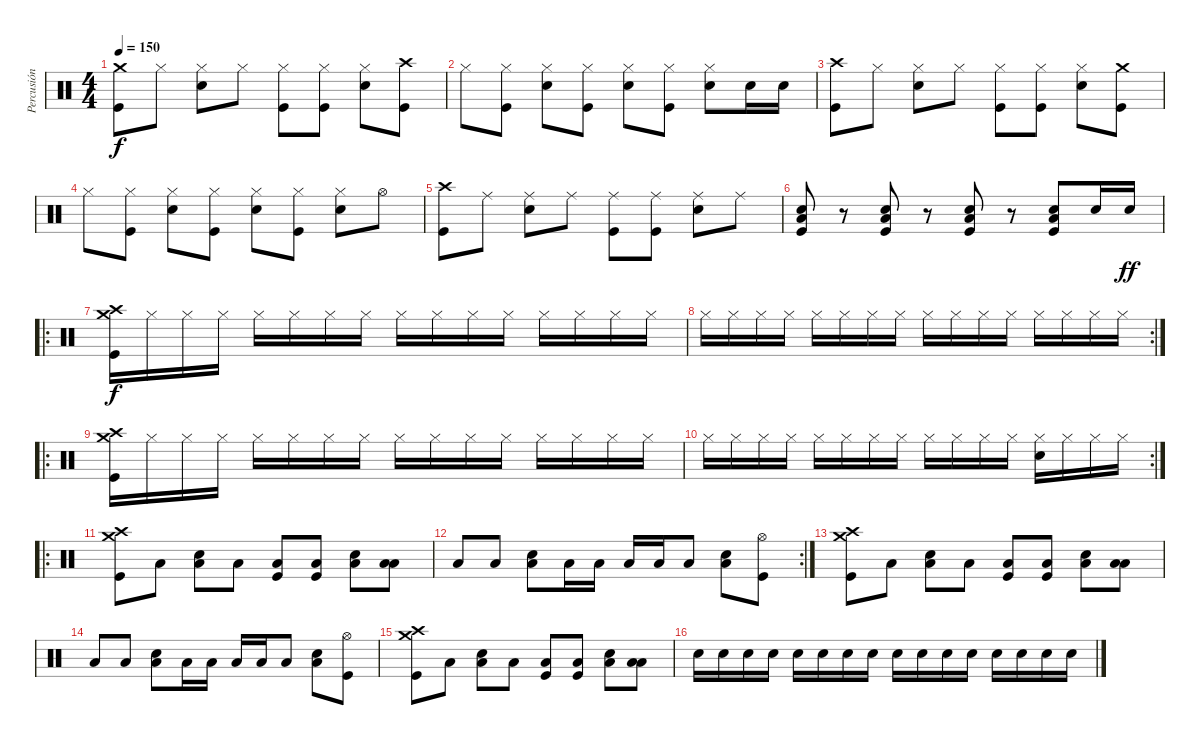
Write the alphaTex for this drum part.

\track ("Percusión" "Percusión") {instrument percussion}
\staff {score}
\articulation defaults
\ts (4 4)
\tempo 150
\clef neutral
\ks c
("Crash medium (hit)" "Kick (hit)").8{dy f} "Hi-Hat (closed)".8 ("Hi-Hat (closed)" "Snare (hit) 2").8 "Hi-Hat (closed)".8 ("Hi-Hat (closed)" "Kick (hit)").8 ("Hi-Hat (closed)" "Kick (hit)").8 ("Hi-Hat (closed)" "Snare (hit) 2").8 ("Crash high (hit)" "Kick (hit)").8 |
"Hi-Hat (closed)".8 ("Hi-Hat (closed)" "Kick (hit)").8 ("Hi-Hat (closed)" "Snare (hit) 2").8 ("Hi-Hat (closed)" "Kick (hit)").8 ("Hi-Hat (closed)" "Snare (hit) 2").8 ("Hi-Hat (closed)" "Kick (hit)").8 ("Hi-Hat (closed)" "Snare (hit) 2").8 "Snare (hit) 2".16 "Snare (hit) 2".16 |
("Crash high (hit)" "Kick (hit)").8 "Hi-Hat (closed)".8 ("Hi-Hat (closed)" "Snare (hit) 2").8 "Hi-Hat (closed)".8 ("Hi-Hat (closed)" "Kick (hit)").8 ("Hi-Hat (closed)" "Kick (hit)").8 ("Hi-Hat (closed)" "Snare (hit) 2").8 ("Crash medium (hit)" "Kick (hit)").8 |
"Hi-Hat (closed)".8 ("Hi-Hat (closed)" "Kick (hit)").8 ("Hi-Hat (closed)" "Snare (hit) 2").8 ("Hi-Hat (closed)" "Kick (hit)").8 ("Hi-Hat (closed)" "Snare (hit) 2").8 ("Hi-Hat (closed)" "Kick (hit)").8 ("Hi-Hat (closed)" "Snare (hit) 2").8 "Hi-Hat (open)".8 |
("Crash high (hit)" "Kick (hit)").8 "Ride (middle)".8 ("Ride (middle)" "Snare (hit) 2").8 "Ride (middle)".8 ("Ride (middle)" "Kick (hit)").8 ("Ride (middle)" "Kick (hit)").8 ("Ride (middle)" "Snare (hit) 2").8 "Ride (middle)".8 |
("Low Floor Tom (hit)" "Snare (hit) 2" "Kick (hit)").8 r.8 ("Low Floor Tom (hit)" "Snare (hit) 2" "Kick (hit)").8 r.8 ("Low Floor Tom (hit)" "Snare (hit) 2" "Kick (hit)").8 r.8 ("Low Floor Tom (hit)" "Snare (hit) 2" "Kick (hit)").8 "Snare (hit) 2".16 "Snare (hit) 2".16{dy ff} |
\ro
("Kick (hit)" "Crash high (hit)" "Crash medium (hit)").16{dy f} "Hi-Hat (closed)".16 "Hi-Hat (closed)".16 "Hi-Hat (closed)".16 "Hi-Hat (closed)".16 "Hi-Hat (closed)".16 "Hi-Hat (closed)".16 "Hi-Hat (closed)".16 "Hi-Hat (closed)".16 "Hi-Hat (closed)".16 "Hi-Hat (closed)".16 "Hi-Hat (closed)".16 "Hi-Hat (closed)".16 "Hi-Hat (closed)".16 "Hi-Hat (closed)".16 "Hi-Hat (closed)".16 |
\rc 2 "Hi-Hat (closed)".16 "Hi-Hat (closed)".16 "Hi-Hat (closed)".16 "Hi-Hat (closed)".16 "Hi-Hat (closed)".16 "Hi-Hat (closed)".16 "Hi-Hat (closed)".16 "Hi-Hat (closed)".16 "Hi-Hat (closed)".16 "Hi-Hat (closed)".16 "Hi-Hat (closed)".16 "Hi-Hat (closed)".16 "Hi-Hat (closed)".16 "Hi-Hat (closed)".16 "Hi-Hat (closed)".16 "Hi-Hat (closed)".16
|
\ro
("Kick (hit)" "Crash high (hit)" "Crash medium (hit)").16 "Hi-Hat (closed)".16 "Hi-Hat (closed)".16 "Hi-Hat (closed)".16 "Hi-Hat (closed)".16 "Hi-Hat (closed)".16 "Hi-Hat (closed)".16 "Hi-Hat (closed)".16 "Hi-Hat (closed)".16 "Hi-Hat (closed)".16 "Hi-Hat (closed)".16 "Hi-Hat (closed)".16 "Hi-Hat (closed)".16 "Hi-Hat (closed)".16 "Hi-Hat (closed)".16 "Hi-Hat (closed)".16 |
\rc 2 "Hi-Hat (closed)".16 "Hi-Hat (closed)".16 "Hi-Hat (closed)".16 "Hi-Hat (closed)".16 "Hi-Hat (closed)".16 "Hi-Hat (closed)".16 "Hi-Hat (closed)".16 "Hi-Hat (closed)".16 "Hi-Hat (closed)".16 "Hi-Hat (closed)".16 "Hi-Hat (closed)".16 "Hi-Hat (closed)".16
("Hi-Hat (closed)" "Snare (hit) 2").16 "Hi-Hat (closed)".16 "Hi-Hat (closed)".16 "Hi-Hat (closed)".16 |
\ro
("Kick (hit)" "Crash high (hit)" "Crash medium (hit)").8 "Low Floor Tom (hit)".8 ("Low Floor Tom (hit)" "Snare (hit) 2").8 "Low Floor Tom (hit)".8 ("Low Floor Tom (hit)" "Kick (hit)").8 ("Low Floor Tom (hit)" "Kick (hit)").8 ("Low Floor Tom (hit)" "Snare (hit) 2").8 ("Low Floor Tom (hit)" "Low Tom (hit)").8 |
\rc 2 "Low Floor Tom (hit)".8 "Low Floor Tom (hit)".8
("Low Floor Tom (hit)" "Snare (hit) 2").8 "Low Floor Tom (hit)".16 "Low Tom (hit)".16 "Low Floor Tom (hit)".16 "Low Tom (hit)".16 "Low Floor Tom (hit)".8 ("Low Floor Tom (hit)" "Snare (hit) 2").8 ("Hi-Hat (open)" "Kick (hit)").8 |
("Kick (hit)" "Crash high (hit)" "Crash medium (hit)").8 "Low Floor Tom (hit)".8 ("Low Floor Tom (hit)" "Snare (hit) 2").8 "Low Floor Tom (hit)".8 ("Low Floor Tom (hit)" "Kick (hit)").8 ("Low Floor Tom (hit)" "Kick (hit)").8 ("Low Floor Tom (hit)" "Snare (hit) 2").8 ("Low Floor Tom (hit)" "Low Tom (hit)").8 |
"Low Floor Tom (hit)".8 "Low Floor Tom (hit)".8 ("Low Floor Tom (hit)" "Snare (hit) 2").8 "Low Floor Tom (hit)".16 "Low Tom (hit)".16 "Low Floor Tom (hit)".16 "Low Tom (hit)".16 "Low Floor Tom (hit)".8 ("Low Floor Tom (hit)" "Snare (hit) 2").8 ("Hi-Hat (open)" "Kick (hit)").8 |
("Kick (hit)" "Crash high (hit)" "Crash medium (hit)").8 "Low Floor Tom (hit)".8 ("Low Floor Tom (hit)" "Snare (hit) 2").8 "Low Floor Tom (hit)".8 ("Low Floor Tom (hit)" "Kick (hit)").8 ("Low Floor Tom (hit)" "Kick (hit)").8 ("Low Floor Tom (hit)" "Snare (hit) 2").8 ("Low Floor Tom (hit)" "Low Tom (hit)").8 |
"Snare (hit) 2".16 "Snare (hit) 2".16 "Snare (hit) 2".16 "Snare (hit) 2".16 "Snare (hit) 2".16 "Snare (hit) 2".16 "Snare (hit) 2".16 "Snare (hit) 2".16 "Snare (hit) 2".16 "Snare (hit) 2".16 "Snare (hit) 2".16 "Snare (hit) 2".16 "Snare (hit) 2".16 "Snare (hit) 2".16 "Snare (hit) 2".16 "Snare (hit) 2".16
